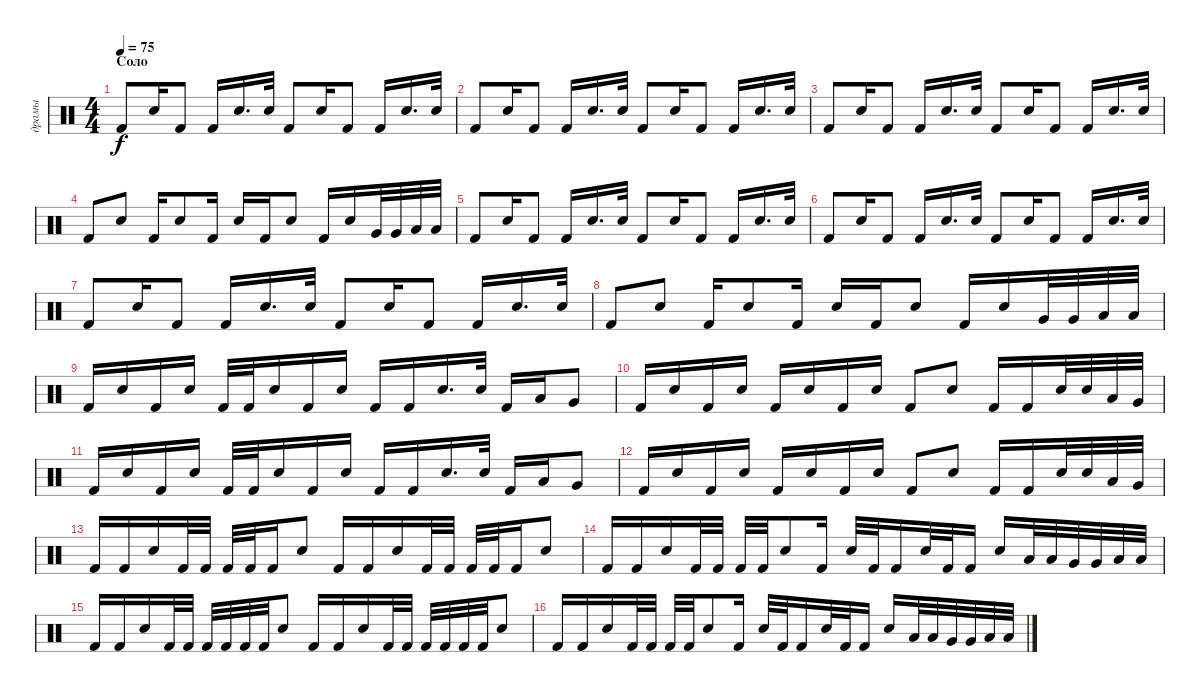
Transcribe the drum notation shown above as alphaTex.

\track ("драмы" "драмы") {instrument percussion}
\staff {score}
\articulation defaults
\ts (4 4)
\section ("" "Соло")
\tempo 75
\clef neutral
\ks c "Kick (hit) 2".8{dy f} "Electric Snare (hit)".16 "Kick (hit) 2".8 "Kick (hit) 2".16 "Electric Snare (hit)".16{d} "Electric Snare (hit)".32 "Kick (hit) 2".8 "Electric Snare (hit)".16 "Kick (hit) 2".8 "Kick (hit) 2".16 "Electric Snare (hit)".16{d} "Electric Snare (hit)".32
|
"Kick (hit) 2".8 "Electric Snare (hit)".16 "Kick (hit) 2".8 "Kick (hit) 2".16 "Electric Snare (hit)".16{d} "Electric Snare (hit)".32 "Kick (hit) 2".8 "Electric Snare (hit)".16 "Kick (hit) 2".8 "Kick (hit) 2".16 "Electric Snare (hit)".16{d} "Electric Snare (hit)".32 |
"Kick (hit) 2".8 "Electric Snare (hit)".16 "Kick (hit) 2".8 "Kick (hit) 2".16 "Electric Snare (hit)".16{d} "Electric Snare (hit)".32 "Kick (hit) 2".8 "Electric Snare (hit)".16 "Kick (hit) 2".8 "Kick (hit) 2".16 "Electric Snare (hit)".16{d} "Electric Snare (hit)".32 |
"Kick (hit) 2".8 "Electric Snare (hit)".8 "Kick (hit) 2".16 "Electric Snare (hit)".8 "Kick (hit) 2".16 "Electric Snare (hit)".16 "Kick (hit) 2".16 "Electric Snare (hit)".8 "Kick (hit) 2".16 "Electric Snare (hit)".16 "Very Low Tom (hit)".32 "Very Low Tom (hit)".32 "Low Tom (hit)".32 "Low Tom (hit)".32 |
"Kick (hit) 2".8 "Electric Snare (hit)".16 "Kick (hit) 2".8 "Kick (hit) 2".16 "Electric Snare (hit)".16{d} "Electric Snare (hit)".32 "Kick (hit) 2".8 "Electric Snare (hit)".16 "Kick (hit) 2".8 "Kick (hit) 2".16 "Electric Snare (hit)".16{d} "Electric Snare (hit)".32 |
"Kick (hit) 2".8 "Electric Snare (hit)".16 "Kick (hit) 2".8 "Kick (hit) 2".16 "Electric Snare (hit)".16{d} "Electric Snare (hit)".32 "Kick (hit) 2".8 "Electric Snare (hit)".16 "Kick (hit) 2".8 "Kick (hit) 2".16 "Electric Snare (hit)".16{d} "Electric Snare (hit)".32 |
"Kick (hit) 2".8 "Electric Snare (hit)".16 "Kick (hit) 2".8 "Kick (hit) 2".16 "Electric Snare (hit)".16{d} "Electric Snare (hit)".32 "Kick (hit) 2".8 "Electric Snare (hit)".16 "Kick (hit) 2".8 "Kick (hit) 2".16 "Electric Snare (hit)".16{d} "Electric Snare (hit)".32 |
"Kick (hit) 2".8 "Electric Snare (hit)".8 "Kick (hit) 2".16 "Electric Snare (hit)".8 "Kick (hit) 2".16 "Electric Snare (hit)".16 "Kick (hit) 2".16 "Electric Snare (hit)".8 "Kick (hit) 2".16 "Electric Snare (hit)".16 "Very Low Tom (hit)".32 "Very Low Tom (hit)".32 "Low Tom (hit)".32 "Low Tom (hit)".32 |
"Kick (hit) 2".16 "Electric Snare (hit)".16 "Kick (hit) 2".16 "Electric Snare (hit)".16 "Kick (hit) 2".32 "Kick (hit) 2".32 "Electric Snare (hit)".16 "Kick (hit) 2".16 "Electric Snare (hit)".16 "Kick (hit) 2".16 "Kick (hit) 2".16 "Electric Snare (hit)".16{d} "Electric Snare (hit)".32 "Kick (hit) 2".16 "Low Tom (hit)".16 "Very Low Tom (hit)".8 |
"Kick (hit) 2".16 "Electric Snare (hit)".16 "Kick (hit) 2".16 "Electric Snare (hit)".16 "Kick (hit) 2".16 "Electric Snare (hit)".16 "Kick (hit) 2".16 "Electric Snare (hit)".16 "Kick (hit) 2".8 "Electric Snare (hit)".8 "Kick (hit) 2".16 "Kick (hit) 2".16 "Electric Snare (hit)".32 "Electric Snare (hit)".32 "Low Tom (hit)".32 "Very Low Tom (hit)".32 |
"Kick (hit) 2".16 "Electric Snare (hit)".16 "Kick (hit) 2".16 "Electric Snare (hit)".16 "Kick (hit) 2".32 "Kick (hit) 2".32 "Electric Snare (hit)".16 "Kick (hit) 2".16 "Electric Snare (hit)".16 "Kick (hit) 2".16 "Kick (hit) 2".16 "Electric Snare (hit)".16{d} "Electric Snare (hit)".32 "Kick (hit) 2".16 "Low Tom (hit)".16 "Very Low Tom (hit)".8 |
"Kick (hit) 2".16 "Electric Snare (hit)".16 "Kick (hit) 2".16 "Electric Snare (hit)".16 "Kick (hit) 2".16 "Electric Snare (hit)".16 "Kick (hit) 2".16 "Electric Snare (hit)".16 "Kick (hit) 2".8 "Electric Snare (hit)".8 "Kick (hit) 2".16 "Kick (hit) 2".16 "Electric Snare (hit)".32 "Electric Snare (hit)".32 "Low Tom (hit)".32 "Very Low Tom (hit)".32 |
"Kick (hit) 2".16 "Kick (hit) 2".16 "Electric Snare (hit)".16 "Kick (hit) 2".32 "Kick (hit) 2".32 "Kick (hit) 2".32 "Kick (hit) 2".32 "Kick (hit) 2".16 "Electric Snare (hit)".8 "Kick (hit) 2".16 "Kick (hit) 2".16 "Electric Snare (hit)".16 "Kick (hit) 2".32 "Kick (hit) 2".32 "Kick (hit) 2".32 "Kick (hit) 2".32 "Kick (hit) 2".16 "Electric Snare (hit)".8 |
"Kick (hit) 2".16 "Kick (hit) 2".16 "Electric Snare (hit)".16 "Kick (hit) 2".32 "Kick (hit) 2".32 "Kick (hit) 2".32 "Kick (hit) 2".32 "Electric Snare (hit)".8 "Kick (hit) 2".16 "Electric Snare (hit)".32 "Kick (hit) 2".32 "Kick (hit) 2".16 "Electric Snare (hit)".32 "Kick (hit) 2".32 "Kick (hit) 2".16 "Electric Snare (hit)".16 "Low Tom (hit)".32 "Low Tom (hit)".32 "Very Low Tom (hit)".32 "Very Low Tom (hit)".32 "Low Floor Tom (hit)".32 "Low Floor Tom (hit)".32 |
"Kick (hit) 2".16 "Kick (hit) 2".16 "Electric Snare (hit)".16 "Kick (hit) 2".32 "Kick (hit) 2".32 "Kick (hit) 2".32 "Kick (hit) 2".32 "Kick (hit) 2".32 "Kick (hit) 2".32 "Electric Snare (hit)".8 "Kick (hit) 2".16 "Kick (hit) 2".16 "Electric Snare (hit)".16 "Kick (hit) 2".32 "Kick (hit) 2".32 "Kick (hit) 2".32 "Kick (hit) 2".32 "Kick (hit) 2".32 "Kick (hit) 2".32 "Electric Snare (hit)".8 |
"Kick (hit) 2".16 "Kick (hit) 2".16 "Electric Snare (hit)".16 "Kick (hit) 2".32 "Kick (hit) 2".32 "Kick (hit) 2".32 "Kick (hit) 2".32 "Electric Snare (hit)".8 "Kick (hit) 2".16 "Electric Snare (hit)".32 "Kick (hit) 2".32 "Kick (hit) 2".16 "Electric Snare (hit)".32 "Kick (hit) 2".32 "Kick (hit) 2".16 "Electric Snare (hit)".16 "Low Tom (hit)".32 "Low Tom (hit)".32 "Very Low Tom (hit)".32 "Very Low Tom (hit)".32 "Low Floor Tom (hit)".32 "Low Floor Tom (hit)".32
